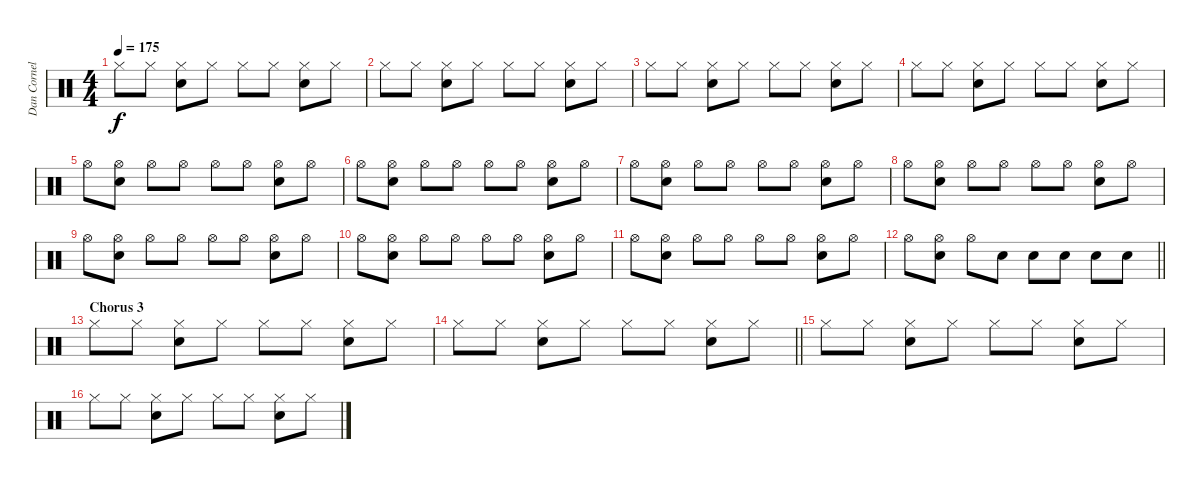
\track ("Dan Cornelius" "Dan Cornel") {instrument percussion}
\staff {score}
\articulation defaults
\ts (4 4)
\tempo 175
\clef neutral
\ks c "Hi-Hat (closed)".8{dy f} "Hi-Hat (closed)".8
("Hi-Hat (closed)" "Electric Snare (hit)").8 "Hi-Hat (closed)".8 "Hi-Hat (closed)".8 "Hi-Hat (closed)".8 ("Hi-Hat (closed)" "Electric Snare (hit)").8 "Hi-Hat (closed)".8 |
"Hi-Hat (closed)".8 "Hi-Hat (closed)".8 ("Hi-Hat (closed)" "Electric Snare (hit)").8 "Hi-Hat (closed)".8 "Hi-Hat (closed)".8 "Hi-Hat (closed)".8 ("Hi-Hat (closed)" "Electric Snare (hit)").8 "Hi-Hat (closed)".8 |
"Hi-Hat (closed)".8 "Hi-Hat (closed)".8 ("Hi-Hat (closed)" "Electric Snare (hit)").8 "Hi-Hat (closed)".8 "Hi-Hat (closed)".8 "Hi-Hat (closed)".8 ("Hi-Hat (closed)" "Electric Snare (hit)").8 "Hi-Hat (closed)".8 |
"Hi-Hat (closed)".8 "Hi-Hat (closed)".8 ("Hi-Hat (closed)" "Electric Snare (hit)").8 "Hi-Hat (closed)".8 "Hi-Hat (closed)".8 "Hi-Hat (closed)".8 ("Hi-Hat (closed)" "Electric Snare (hit)").8 "Hi-Hat (closed)".8 |
"Hi-Hat (open)".8 ("Hi-Hat (open)" "Electric Snare (hit)").8 "Hi-Hat (open)".8 "Hi-Hat (open)".8 "Hi-Hat (open)".8 "Hi-Hat (open)".8 ("Hi-Hat (open)" "Electric Snare (hit)").8 "Hi-Hat (open)".8 |
"Hi-Hat (open)".8 ("Hi-Hat (open)" "Electric Snare (hit)").8 "Hi-Hat (open)".8 "Hi-Hat (open)".8 "Hi-Hat (open)".8 "Hi-Hat (open)".8 ("Hi-Hat (open)" "Electric Snare (hit)").8 "Hi-Hat (open)".8 |
"Hi-Hat (open)".8 ("Hi-Hat (open)" "Electric Snare (hit)").8 "Hi-Hat (open)".8 "Hi-Hat (open)".8 "Hi-Hat (open)".8 "Hi-Hat (open)".8 ("Hi-Hat (open)" "Electric Snare (hit)").8 "Hi-Hat (open)".8 |
"Hi-Hat (open)".8 ("Hi-Hat (open)" "Electric Snare (hit)").8 "Hi-Hat (open)".8 "Hi-Hat (open)".8 "Hi-Hat (open)".8 "Hi-Hat (open)".8 ("Hi-Hat (open)" "Electric Snare (hit)").8 "Hi-Hat (open)".8 |
"Hi-Hat (open)".8 ("Hi-Hat (open)" "Electric Snare (hit)").8 "Hi-Hat (open)".8 "Hi-Hat (open)".8 "Hi-Hat (open)".8 "Hi-Hat (open)".8 ("Hi-Hat (open)" "Electric Snare (hit)").8 "Hi-Hat (open)".8 |
"Hi-Hat (open)".8 ("Hi-Hat (open)" "Electric Snare (hit)").8 "Hi-Hat (open)".8 "Hi-Hat (open)".8 "Hi-Hat (open)".8 "Hi-Hat (open)".8 ("Hi-Hat (open)" "Electric Snare (hit)").8 "Hi-Hat (open)".8 |
"Hi-Hat (open)".8 ("Hi-Hat (open)" "Electric Snare (hit)").8 "Hi-Hat (open)".8 "Hi-Hat (open)".8 "Hi-Hat (open)".8 "Hi-Hat (open)".8 ("Hi-Hat (open)" "Electric Snare (hit)").8 "Hi-Hat (open)".8 |
\barLineRight lightlight "Hi-Hat (open)".8
("Hi-Hat (open)" "Electric Snare (hit)").8 "Hi-Hat (open)".8 "Electric Snare (hit)".8 "Electric Snare (hit)".8 "Electric Snare (hit)".8 "Electric Snare (hit)".8 "Electric Snare (hit)".8 |
\section ("" "Chorus 3")
"Hi-Hat (closed)".8 "Hi-Hat (closed)".8 ("Hi-Hat (closed)" "Electric Snare (hit)").8 "Hi-Hat (closed)".8 "Hi-Hat (closed)".8 "Hi-Hat (closed)".8 ("Hi-Hat (closed)" "Electric Snare (hit)").8 "Hi-Hat (closed)".8 |
\barLineRight lightlight "Hi-Hat (closed)".8 "Hi-Hat (closed)".8
("Hi-Hat (closed)" "Electric Snare (hit)").8 "Hi-Hat (closed)".8 "Hi-Hat (closed)".8 "Hi-Hat (closed)".8 ("Hi-Hat (closed)" "Electric Snare (hit)").8 "Hi-Hat (closed)".8 |
\section ("" "")
"Hi-Hat (closed)".8 "Hi-Hat (closed)".8 ("Hi-Hat (closed)" "Electric Snare (hit)").8 "Hi-Hat (closed)".8 "Hi-Hat (closed)".8 "Hi-Hat (closed)".8 ("Hi-Hat (closed)" "Electric Snare (hit)").8 "Hi-Hat (closed)".8 |
"Hi-Hat (closed)".8 "Hi-Hat (closed)".8 ("Hi-Hat (closed)" "Electric Snare (hit)").8 "Hi-Hat (closed)".8 "Hi-Hat (closed)".8 "Hi-Hat (closed)".8 ("Hi-Hat (closed)" "Electric Snare (hit)").8 "Hi-Hat (closed)".8
